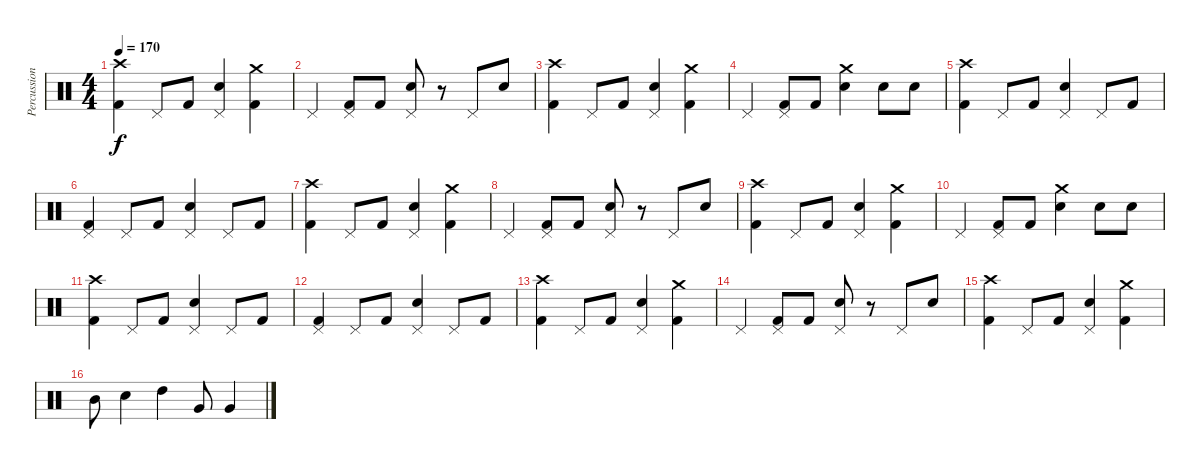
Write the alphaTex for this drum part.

\track ("Percussion" "Percussion") {instrument percussion}
\staff {score}
\articulation defaults
\ts (4 4)
\tempo 170
\clef neutral
\ks c
("Crash high (hit)" "Kick (hit) 2").4{dy f} "Pedal Hi-Hat (hit)".8 "Kick (hit) 2".8 ("Pedal Hi-Hat (hit)" "Snare (hit) 2").4 ("Crash medium (hit)" "Kick (hit) 2").4 |
"Pedal Hi-Hat (hit)".4 ("Pedal Hi-Hat (hit)" "Kick (hit) 2").8 "Kick (hit) 2".8 ("Pedal Hi-Hat (hit)" "Snare (hit) 2").8 r.8 "Pedal Hi-Hat (hit)".8 "Snare (hit) 2".8 |
("Crash high (hit)" "Kick (hit) 2").4 "Pedal Hi-Hat (hit)".8 "Kick (hit) 2".8 ("Pedal Hi-Hat (hit)" "Snare (hit) 2").4 ("Crash medium (hit)" "Kick (hit) 2").4 |
"Pedal Hi-Hat (hit)".4 ("Pedal Hi-Hat (hit)" "Kick (hit) 2").8 "Kick (hit) 2".8 ("Crash medium (hit)" "Snare (hit) 2").4 "Snare (hit) 2".8 "Snare (hit) 2".8 |
("Crash high (hit)" "Kick (hit) 2").4 "Pedal Hi-Hat (hit)".8 "Kick (hit) 2".8 ("Pedal Hi-Hat (hit)" "Snare (hit) 2").4 "Pedal Hi-Hat (hit)".8 "Kick (hit) 2".8 |
("Pedal Hi-Hat (hit)" "Kick (hit) 2").4 "Pedal Hi-Hat (hit)".8 "Kick (hit) 2".8 ("Pedal Hi-Hat (hit)" "Snare (hit) 2").4 "Pedal Hi-Hat (hit)".8 "Kick (hit) 2".8 |
("Crash high (hit)" "Kick (hit) 2").4 "Pedal Hi-Hat (hit)".8 "Kick (hit) 2".8 ("Pedal Hi-Hat (hit)" "Snare (hit) 2").4 ("Crash medium (hit)" "Kick (hit) 2").4 |
"Pedal Hi-Hat (hit)".4 ("Pedal Hi-Hat (hit)" "Kick (hit) 2").8 "Kick (hit) 2".8 ("Pedal Hi-Hat (hit)" "Snare (hit) 2").8 r.8 "Pedal Hi-Hat (hit)".8 "Snare (hit) 2".8 |
("Crash high (hit)" "Kick (hit) 2").4 "Pedal Hi-Hat (hit)".8 "Kick (hit) 2".8 ("Pedal Hi-Hat (hit)" "Snare (hit) 2").4 ("Crash medium (hit)" "Kick (hit) 2").4 |
"Pedal Hi-Hat (hit)".4 ("Pedal Hi-Hat (hit)" "Kick (hit) 2").8 "Kick (hit) 2".8 ("Crash medium (hit)" "Snare (hit) 2").4 "Snare (hit) 2".8 "Snare (hit) 2".8 |
("Crash high (hit)" "Kick (hit) 2").4 "Pedal Hi-Hat (hit)".8 "Kick (hit) 2".8 ("Pedal Hi-Hat (hit)" "Snare (hit) 2").4 "Pedal Hi-Hat (hit)".8 "Kick (hit) 2".8 |
("Pedal Hi-Hat (hit)" "Kick (hit) 2").4 "Pedal Hi-Hat (hit)".8 "Kick (hit) 2".8 ("Pedal Hi-Hat (hit)" "Snare (hit) 2").4 "Pedal Hi-Hat (hit)".8 "Kick (hit) 2".8 |
("Crash high (hit)" "Kick (hit) 2").4 "Pedal Hi-Hat (hit)".8 "Kick (hit) 2".8 ("Pedal Hi-Hat (hit)" "Snare (hit) 2").4 ("Crash medium (hit)" "Kick (hit) 2").4 |
"Pedal Hi-Hat (hit)".4 ("Pedal Hi-Hat (hit)" "Kick (hit) 2").8 "Kick (hit) 2".8 ("Pedal Hi-Hat (hit)" "Snare (hit) 2").8 r.8 "Pedal Hi-Hat (hit)".8 "Snare (hit) 2".8 |
("Crash high (hit)" "Kick (hit) 2").4 "Pedal Hi-Hat (hit)".8 "Kick (hit) 2".8 ("Pedal Hi-Hat (hit)" "Snare (hit) 2").4 ("Crash medium (hit)" "Kick (hit) 2").4 |
"Mid Tom (hit)".8 "Snare (hit) 2".4 "High Tom (hit)".4 "Very Low Tom (hit)".8 "Very Low Tom (hit)".4
